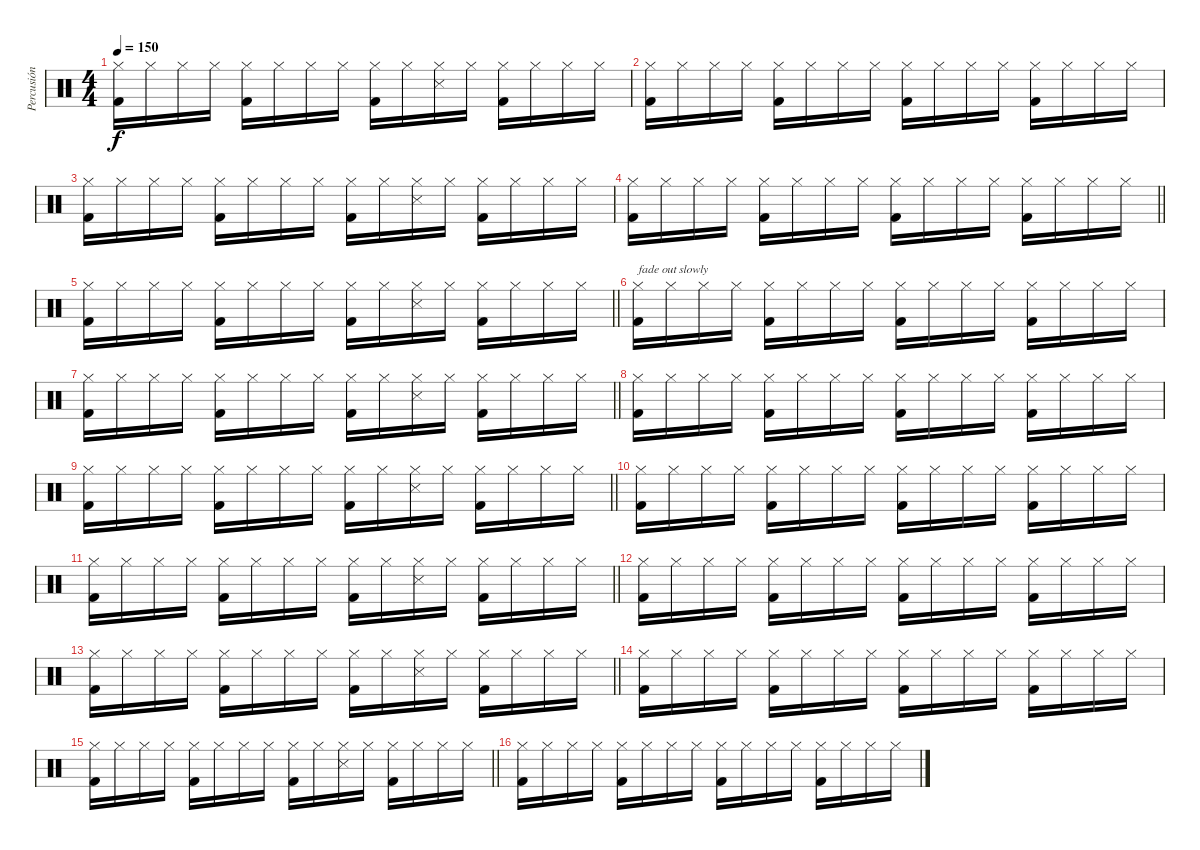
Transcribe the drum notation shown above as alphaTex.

\track ("Percusión" "Percusión") {instrument percussion}
\staff {score}
\articulation defaults
\ts (4 4)
\tempo 150
\clef neutral
\ks c
("Kick (hit) 2" "Hi-Hat (closed)").16{dy f} "Hi-Hat (closed)".16 "Hi-Hat (closed)".16 "Hi-Hat (closed)".16 ("Kick (hit) 2" "Hi-Hat (closed)").16 "Hi-Hat (closed)".16 "Hi-Hat (closed)".16 "Hi-Hat (closed)".16 ("Kick (hit) 2" "Hi-Hat (closed)").16 "Hi-Hat (closed)".16 ("Snare (side stick) 3" "Hi-Hat (closed)").16 "Hi-Hat (closed)".16 ("Kick (hit) 2" "Hi-Hat (closed)").16 "Hi-Hat (closed)".16 "Hi-Hat (closed)".16 "Hi-Hat (closed)".16 |
("Kick (hit) 2" "Hi-Hat (closed)").16 "Hi-Hat (closed)".16 "Hi-Hat (closed)".16 "Hi-Hat (closed)".16 ("Kick (hit) 2" "Hi-Hat (closed)").16 "Hi-Hat (closed)".16 "Hi-Hat (closed)".16 "Hi-Hat (closed)".16 ("Kick (hit) 2" "Hi-Hat (closed)").16 "Hi-Hat (closed)".16 "Hi-Hat (closed)".16 "Hi-Hat (closed)".16 ("Kick (hit) 2" "Hi-Hat (closed)").16 "Hi-Hat (closed)".16 "Hi-Hat (closed)".16 "Hi-Hat (closed)".16 |
("Kick (hit) 2" "Hi-Hat (closed)").16 "Hi-Hat (closed)".16 "Hi-Hat (closed)".16 "Hi-Hat (closed)".16 ("Kick (hit) 2" "Hi-Hat (closed)").16 "Hi-Hat (closed)".16 "Hi-Hat (closed)".16 "Hi-Hat (closed)".16 ("Kick (hit) 2" "Hi-Hat (closed)").16 "Hi-Hat (closed)".16 ("Snare (side stick) 3" "Hi-Hat (closed)").16 "Hi-Hat (closed)".16 ("Kick (hit) 2" "Hi-Hat (closed)").16 "Hi-Hat (closed)".16 "Hi-Hat (closed)".16 "Hi-Hat (closed)".16 |
\barLineRight lightlight
("Kick (hit) 2" "Hi-Hat (closed)").16 "Hi-Hat (closed)".16 "Hi-Hat (closed)".16 "Hi-Hat (closed)".16 ("Kick (hit) 2" "Hi-Hat (closed)").16 "Hi-Hat (closed)".16 "Hi-Hat (closed)".16 "Hi-Hat (closed)".16 ("Kick (hit) 2" "Hi-Hat (closed)").16 "Hi-Hat (closed)".16 "Hi-Hat (closed)".16 "Hi-Hat (closed)".16 ("Kick (hit) 2" "Hi-Hat (closed)").16 "Hi-Hat (closed)".16 "Hi-Hat (closed)".16 "Hi-Hat (closed)".16 |
\barLineRight lightlight
("Kick (hit) 2" "Hi-Hat (closed)").16 "Hi-Hat (closed)".16 "Hi-Hat (closed)".16 "Hi-Hat (closed)".16 ("Kick (hit) 2" "Hi-Hat (closed)").16 "Hi-Hat (closed)".16 "Hi-Hat (closed)".16 "Hi-Hat (closed)".16 ("Kick (hit) 2" "Hi-Hat (closed)").16 "Hi-Hat (closed)".16 ("Snare (side stick) 3" "Hi-Hat (closed)").16 "Hi-Hat (closed)".16 ("Kick (hit) 2" "Hi-Hat (closed)").16 "Hi-Hat (closed)".16 "Hi-Hat (closed)".16 "Hi-Hat (closed)".16 |
("Kick (hit) 2" "Hi-Hat (closed)").16{txt "fade out slowly"} "Hi-Hat (closed)".16 "Hi-Hat (closed)".16 "Hi-Hat (closed)".16 ("Kick (hit) 2" "Hi-Hat (closed)").16 "Hi-Hat (closed)".16 "Hi-Hat (closed)".16 "Hi-Hat (closed)".16 ("Kick (hit) 2" "Hi-Hat (closed)").16 "Hi-Hat (closed)".16 "Hi-Hat (closed)".16 "Hi-Hat (closed)".16 ("Kick (hit) 2" "Hi-Hat (closed)").16 "Hi-Hat (closed)".16 "Hi-Hat (closed)".16 "Hi-Hat (closed)".16 |
\barLineRight lightlight
("Kick (hit) 2" "Hi-Hat (closed)").16 "Hi-Hat (closed)".16 "Hi-Hat (closed)".16 "Hi-Hat (closed)".16 ("Kick (hit) 2" "Hi-Hat (closed)").16 "Hi-Hat (closed)".16 "Hi-Hat (closed)".16 "Hi-Hat (closed)".16 ("Kick (hit) 2" "Hi-Hat (closed)").16 "Hi-Hat (closed)".16 ("Snare (side stick) 3" "Hi-Hat (closed)").16 "Hi-Hat (closed)".16 ("Kick (hit) 2" "Hi-Hat (closed)").16 "Hi-Hat (closed)".16 "Hi-Hat (closed)".16 "Hi-Hat (closed)".16 |
("Kick (hit) 2" "Hi-Hat (closed)").16 "Hi-Hat (closed)".16 "Hi-Hat (closed)".16 "Hi-Hat (closed)".16 ("Kick (hit) 2" "Hi-Hat (closed)").16 "Hi-Hat (closed)".16 "Hi-Hat (closed)".16 "Hi-Hat (closed)".16 ("Kick (hit) 2" "Hi-Hat (closed)").16 "Hi-Hat (closed)".16 "Hi-Hat (closed)".16 "Hi-Hat (closed)".16 ("Kick (hit) 2" "Hi-Hat (closed)").16 "Hi-Hat (closed)".16 "Hi-Hat (closed)".16 "Hi-Hat (closed)".16 |
\barLineRight lightlight
("Kick (hit) 2" "Hi-Hat (closed)").16 "Hi-Hat (closed)".16 "Hi-Hat (closed)".16 "Hi-Hat (closed)".16 ("Kick (hit) 2" "Hi-Hat (closed)").16 "Hi-Hat (closed)".16 "Hi-Hat (closed)".16 "Hi-Hat (closed)".16 ("Kick (hit) 2" "Hi-Hat (closed)").16 "Hi-Hat (closed)".16 ("Snare (side stick) 3" "Hi-Hat (closed)").16 "Hi-Hat (closed)".16 ("Kick (hit) 2" "Hi-Hat (closed)").16 "Hi-Hat (closed)".16 "Hi-Hat (closed)".16 "Hi-Hat (closed)".16 |
("Kick (hit) 2" "Hi-Hat (closed)").16 "Hi-Hat (closed)".16 "Hi-Hat (closed)".16 "Hi-Hat (closed)".16 ("Kick (hit) 2" "Hi-Hat (closed)").16 "Hi-Hat (closed)".16 "Hi-Hat (closed)".16 "Hi-Hat (closed)".16 ("Kick (hit) 2" "Hi-Hat (closed)").16 "Hi-Hat (closed)".16 "Hi-Hat (closed)".16 "Hi-Hat (closed)".16 ("Kick (hit) 2" "Hi-Hat (closed)").16 "Hi-Hat (closed)".16 "Hi-Hat (closed)".16 "Hi-Hat (closed)".16 |
\barLineRight lightlight
("Kick (hit) 2" "Hi-Hat (closed)").16 "Hi-Hat (closed)".16 "Hi-Hat (closed)".16 "Hi-Hat (closed)".16 ("Kick (hit) 2" "Hi-Hat (closed)").16 "Hi-Hat (closed)".16 "Hi-Hat (closed)".16 "Hi-Hat (closed)".16 ("Kick (hit) 2" "Hi-Hat (closed)").16 "Hi-Hat (closed)".16 ("Snare (side stick) 3" "Hi-Hat (closed)").16 "Hi-Hat (closed)".16 ("Kick (hit) 2" "Hi-Hat (closed)").16 "Hi-Hat (closed)".16 "Hi-Hat (closed)".16 "Hi-Hat (closed)".16 |
("Kick (hit) 2" "Hi-Hat (closed)").16 "Hi-Hat (closed)".16 "Hi-Hat (closed)".16 "Hi-Hat (closed)".16 ("Kick (hit) 2" "Hi-Hat (closed)").16 "Hi-Hat (closed)".16 "Hi-Hat (closed)".16 "Hi-Hat (closed)".16 ("Kick (hit) 2" "Hi-Hat (closed)").16 "Hi-Hat (closed)".16 "Hi-Hat (closed)".16 "Hi-Hat (closed)".16 ("Kick (hit) 2" "Hi-Hat (closed)").16 "Hi-Hat (closed)".16 "Hi-Hat (closed)".16 "Hi-Hat (closed)".16 |
\barLineRight lightlight
("Kick (hit) 2" "Hi-Hat (closed)").16 "Hi-Hat (closed)".16 "Hi-Hat (closed)".16 "Hi-Hat (closed)".16 ("Kick (hit) 2" "Hi-Hat (closed)").16 "Hi-Hat (closed)".16 "Hi-Hat (closed)".16 "Hi-Hat (closed)".16 ("Kick (hit) 2" "Hi-Hat (closed)").16 "Hi-Hat (closed)".16 ("Snare (side stick) 3" "Hi-Hat (closed)").16 "Hi-Hat (closed)".16 ("Kick (hit) 2" "Hi-Hat (closed)").16 "Hi-Hat (closed)".16 "Hi-Hat (closed)".16 "Hi-Hat (closed)".16 |
("Kick (hit) 2" "Hi-Hat (closed)").16 "Hi-Hat (closed)".16 "Hi-Hat (closed)".16 "Hi-Hat (closed)".16 ("Kick (hit) 2" "Hi-Hat (closed)").16 "Hi-Hat (closed)".16 "Hi-Hat (closed)".16 "Hi-Hat (closed)".16 ("Kick (hit) 2" "Hi-Hat (closed)").16 "Hi-Hat (closed)".16 "Hi-Hat (closed)".16 "Hi-Hat (closed)".16 ("Kick (hit) 2" "Hi-Hat (closed)").16 "Hi-Hat (closed)".16 "Hi-Hat (closed)".16 "Hi-Hat (closed)".16 |
\barLineRight lightlight
("Kick (hit) 2" "Hi-Hat (closed)").16 "Hi-Hat (closed)".16 "Hi-Hat (closed)".16 "Hi-Hat (closed)".16 ("Kick (hit) 2" "Hi-Hat (closed)").16 "Hi-Hat (closed)".16 "Hi-Hat (closed)".16 "Hi-Hat (closed)".16 ("Kick (hit) 2" "Hi-Hat (closed)").16 "Hi-Hat (closed)".16 ("Snare (side stick) 3" "Hi-Hat (closed)").16 "Hi-Hat (closed)".16 ("Kick (hit) 2" "Hi-Hat (closed)").16 "Hi-Hat (closed)".16 "Hi-Hat (closed)".16 "Hi-Hat (closed)".16 |
("Kick (hit) 2" "Hi-Hat (closed)").16 "Hi-Hat (closed)".16 "Hi-Hat (closed)".16 "Hi-Hat (closed)".16 ("Kick (hit) 2" "Hi-Hat (closed)").16 "Hi-Hat (closed)".16 "Hi-Hat (closed)".16 "Hi-Hat (closed)".16 ("Kick (hit) 2" "Hi-Hat (closed)").16 "Hi-Hat (closed)".16 "Hi-Hat (closed)".16 "Hi-Hat (closed)".16 ("Kick (hit) 2" "Hi-Hat (closed)").16 "Hi-Hat (closed)".16 "Hi-Hat (closed)".16 "Hi-Hat (closed)".16
